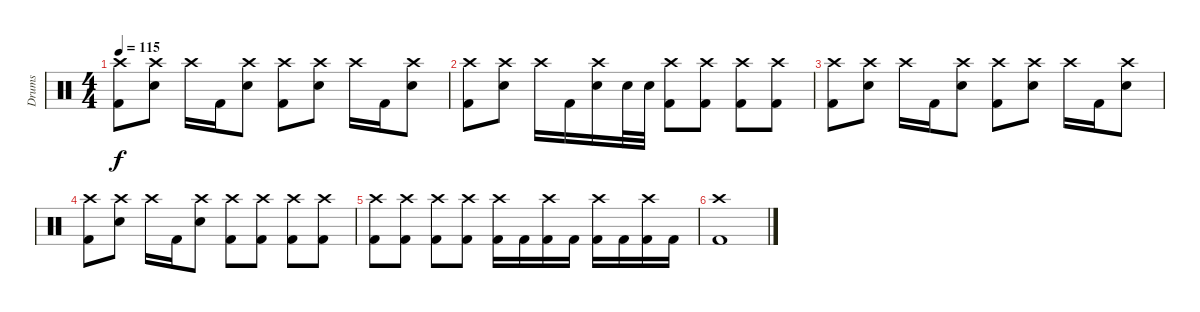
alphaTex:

\track ("Drums" "Drums") {instrument percussion}
\staff {score}
\articulation defaults
\ts (4 4)
\tempo 115
\clef neutral
\ks c
("Crash high (hit)" "Kick (hit) 2").8{dy f} ("Crash high (hit)" "Electric Snare (hit)").8 "Crash high (hit)".16 "Kick (hit) 2".16 ("Crash high (hit)" "Electric Snare (hit)").8 ("Crash high (hit)" "Kick (hit) 2").8 ("Crash high (hit)" "Electric Snare (hit)").8 "Crash high (hit)".16 "Kick (hit) 2".16 ("Crash high (hit)" "Electric Snare (hit)").8 |
("Crash high (hit)" "Kick (hit) 2").8 ("Crash high (hit)" "Electric Snare (hit)").8 "Crash high (hit)".16 "Kick (hit) 2".16 ("Crash high (hit)" "Electric Snare (hit)").16 "Electric Snare (hit)".32 "Electric Snare (hit)".32 ("Crash high (hit)" "Kick (hit) 2").8 ("Crash high (hit)" "Kick (hit) 2").8 ("Crash high (hit)" "Kick (hit) 2").8 ("Crash high (hit)" "Kick (hit) 2").8 |
("Crash high (hit)" "Kick (hit) 2").8 ("Crash high (hit)" "Electric Snare (hit)").8 "Crash high (hit)".16 "Kick (hit) 2".16 ("Crash high (hit)" "Electric Snare (hit)").8 ("Crash high (hit)" "Kick (hit) 2").8 ("Crash high (hit)" "Electric Snare (hit)").8 "Crash high (hit)".16 "Kick (hit) 2".16 ("Crash high (hit)" "Electric Snare (hit)").8 |
("Crash high (hit)" "Kick (hit) 2").8 ("Crash high (hit)" "Electric Snare (hit)").8 "Crash high (hit)".16 "Kick (hit) 2".16 ("Crash high (hit)" "Electric Snare (hit)").8 ("Crash high (hit)" "Kick (hit) 2").8 ("Crash high (hit)" "Kick (hit) 2").8 ("Crash high (hit)" "Kick (hit) 2").8 ("Crash high (hit)" "Kick (hit) 2").8 |
("Crash high (hit)" "Kick (hit) 2").8 ("Crash high (hit)" "Kick (hit) 2").8 ("Crash high (hit)" "Kick (hit) 2").8 ("Crash high (hit)" "Kick (hit) 2").8 ("Crash high (hit)" "Kick (hit) 2").16 "Kick (hit) 2".16 ("Crash high (hit)" "Kick (hit) 2").16 "Kick (hit) 2".16 ("Crash high (hit)" "Kick (hit) 2").16 "Kick (hit) 2".16 ("Crash high (hit)" "Kick (hit) 2").16 "Kick (hit) 2".16 |
("Crash high (hit)" "Kick (hit) 2").1
